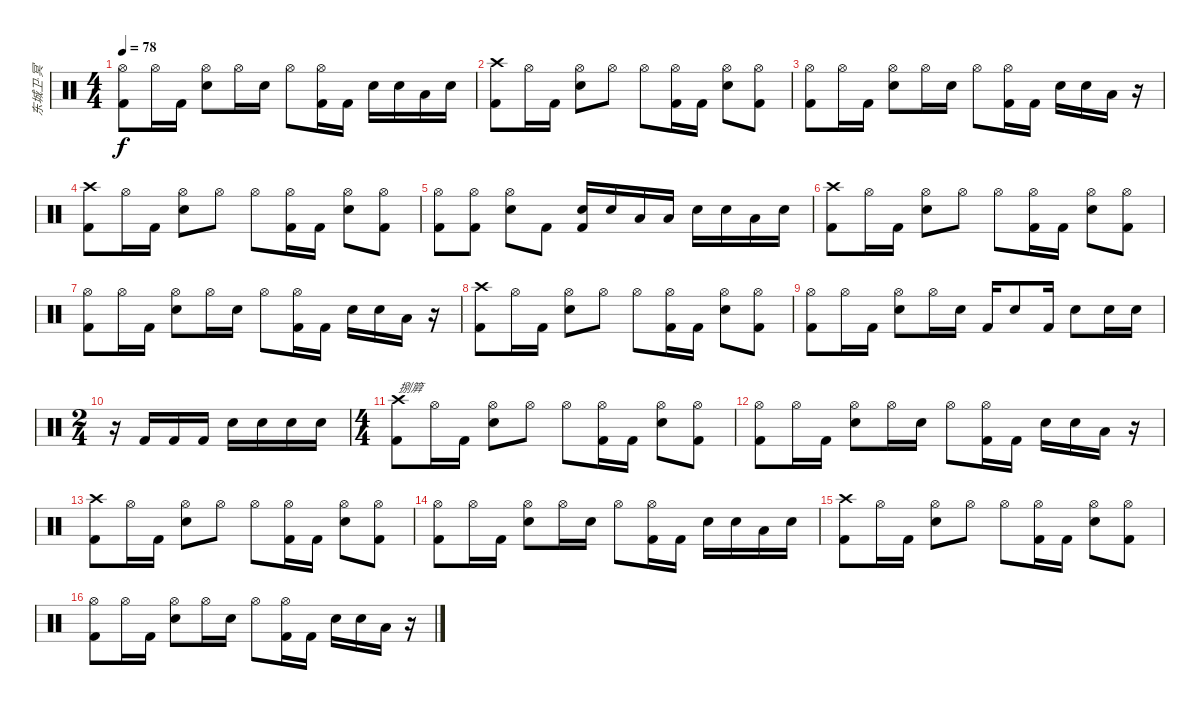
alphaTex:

\track ("东城卫·冥" "东城卫·冥") {instrument percussion}
\staff {score}
\articulation defaults
\ts (4 4)
\tempo 78
\clef neutral
\ks c
("Hi-Hat (open)" "Kick (hit) 2").8{dy f} "Hi-Hat (open)".16 "Kick (hit) 2".16 ("Hi-Hat (open)" "Electric Snare (hit)").8 "Hi-Hat (open)".16 "Electric Snare (hit)".16 "Hi-Hat (open)".8 ("Hi-Hat (open)" "Kick (hit) 2").16 "Kick (hit) 2".16 "Electric Snare (hit)".16 "Electric Snare (hit)".16 "Low Tom (hit)".16 "Electric Snare (hit)".16 |
("Crash high (hit)" "Kick (hit) 2").8 "Hi-Hat (open)".16 "Kick (hit) 2".16 ("Hi-Hat (open)" "Electric Snare (hit)").8 "Hi-Hat (open)".8 "Hi-Hat (open)".8 ("Hi-Hat (open)" "Kick (hit) 2").16 "Kick (hit) 2".16 ("Hi-Hat (open)" "Electric Snare (hit)").8 ("Hi-Hat (open)" "Kick (hit) 2").8 |
("Hi-Hat (open)" "Kick (hit) 2").8 "Hi-Hat (open)".16 "Kick (hit) 2".16 ("Hi-Hat (open)" "Electric Snare (hit)").8 "Hi-Hat (open)".16 "Electric Snare (hit)".16 "Hi-Hat (open)".8 ("Hi-Hat (open)" "Kick (hit) 2").16 "Kick (hit) 2".16 "Electric Snare (hit)".16 "Electric Snare (hit)".16 "Low Tom (hit)".16 r.16 |
("Crash high (hit)" "Kick (hit) 2").8 "Hi-Hat (open)".16 "Kick (hit) 2".16 ("Hi-Hat (open)" "Electric Snare (hit)").8 "Hi-Hat (open)".8 "Hi-Hat (open)".8 ("Hi-Hat (open)" "Kick (hit) 2").16 "Kick (hit) 2".16 ("Hi-Hat (open)" "Electric Snare (hit)").8 ("Hi-Hat (open)" "Kick (hit) 2").8 |
("Hi-Hat (open)" "Kick (hit) 2").8 ("Hi-Hat (open)" "Kick (hit) 2").8 ("Hi-Hat (open)" "Electric Snare (hit)").8 "Kick (hit) 2".8 ("Electric Snare (hit)" "Kick (hit) 2").16 "Electric Snare (hit)".16 "Low Tom (hit)".16 "Low Tom (hit)".16 "Electric Snare (hit)".16 "Electric Snare (hit)".16 "Low Tom (hit)".16 "Electric Snare (hit)".16 |
("Crash high (hit)" "Kick (hit) 2").8 "Hi-Hat (open)".16 "Kick (hit) 2".16 ("Hi-Hat (open)" "Electric Snare (hit)").8 "Hi-Hat (open)".8 "Hi-Hat (open)".8 ("Hi-Hat (open)" "Kick (hit) 2").16 "Kick (hit) 2".16 ("Hi-Hat (open)" "Electric Snare (hit)").8 ("Hi-Hat (open)" "Kick (hit) 2").8 |
("Hi-Hat (open)" "Kick (hit) 2").8 "Hi-Hat (open)".16 "Kick (hit) 2".16 ("Hi-Hat (open)" "Electric Snare (hit)").8 "Hi-Hat (open)".16 "Electric Snare (hit)".16 "Hi-Hat (open)".8 ("Hi-Hat (open)" "Kick (hit) 2").16 "Kick (hit) 2".16 "Electric Snare (hit)".16 "Electric Snare (hit)".16 "Low Tom (hit)".16 r.16 |
("Crash high (hit)" "Kick (hit) 2").8 "Hi-Hat (open)".16 "Kick (hit) 2".16 ("Hi-Hat (open)" "Electric Snare (hit)").8 "Hi-Hat (open)".8 "Hi-Hat (open)".8 ("Hi-Hat (open)" "Kick (hit) 2").16 "Kick (hit) 2".16 ("Hi-Hat (open)" "Electric Snare (hit)").8 ("Hi-Hat (open)" "Kick (hit) 2").8 |
("Hi-Hat (open)" "Kick (hit) 2").8 "Hi-Hat (open)".16 "Kick (hit) 2".16 ("Hi-Hat (open)" "Electric Snare (hit)").8 "Hi-Hat (open)".16 "Electric Snare (hit)".16 "Kick (hit) 2".16 "Electric Snare (hit)".8 "Kick (hit) 2".16 "Electric Snare (hit)".8 "Electric Snare (hit)".16 "Electric Snare (hit)".16 |
\ts (2 4)
r.16 "Kick (hit) 2".16 "Kick (hit) 2".16 "Kick (hit) 2".16 "Electric Snare (hit)".16 "Electric Snare (hit)".16 "Electric Snare (hit)".16 "Electric Snare (hit)".16 |
\ts (4 4)
("Crash high (hit)" "Kick (hit) 2").8{txt "捌簈"} "Hi-Hat (open)".16 "Kick (hit) 2".16 ("Hi-Hat (open)" "Electric Snare (hit)").8 "Hi-Hat (open)".8 "Hi-Hat (open)".8 ("Hi-Hat (open)" "Kick (hit) 2").16 "Kick (hit) 2".16 ("Hi-Hat (open)" "Electric Snare (hit)").8 ("Hi-Hat (open)" "Kick (hit) 2").8 |
("Hi-Hat (open)" "Kick (hit) 2").8 "Hi-Hat (open)".16 "Kick (hit) 2".16 ("Hi-Hat (open)" "Electric Snare (hit)").8 "Hi-Hat (open)".16 "Electric Snare (hit)".16 "Hi-Hat (open)".8 ("Hi-Hat (open)" "Kick (hit) 2").16 "Kick (hit) 2".16 "Electric Snare (hit)".16 "Electric Snare (hit)".16 "Low Tom (hit)".16 r.16 |
("Crash high (hit)" "Kick (hit) 2").8 "Hi-Hat (open)".16 "Kick (hit) 2".16 ("Hi-Hat (open)" "Electric Snare (hit)").8 "Hi-Hat (open)".8 "Hi-Hat (open)".8 ("Hi-Hat (open)" "Kick (hit) 2").16 "Kick (hit) 2".16 ("Hi-Hat (open)" "Electric Snare (hit)").8 ("Hi-Hat (open)" "Kick (hit) 2").8 |
("Hi-Hat (open)" "Kick (hit) 2").8 "Hi-Hat (open)".16 "Kick (hit) 2".16 ("Hi-Hat (open)" "Electric Snare (hit)").8 "Hi-Hat (open)".16 "Electric Snare (hit)".16 "Hi-Hat (open)".8 ("Hi-Hat (open)" "Kick (hit) 2").16 "Kick (hit) 2".16 "Electric Snare (hit)".16 "Electric Snare (hit)".16 "Low Tom (hit)".16 "Electric Snare (hit)".16 |
("Crash high (hit)" "Kick (hit) 2").8 "Hi-Hat (open)".16 "Kick (hit) 2".16 ("Hi-Hat (open)" "Electric Snare (hit)").8 "Hi-Hat (open)".8 "Hi-Hat (open)".8 ("Hi-Hat (open)" "Kick (hit) 2").16 "Kick (hit) 2".16 ("Hi-Hat (open)" "Electric Snare (hit)").8 ("Hi-Hat (open)" "Kick (hit) 2").8 |
("Hi-Hat (open)" "Kick (hit) 2").8 "Hi-Hat (open)".16 "Kick (hit) 2".16 ("Hi-Hat (open)" "Electric Snare (hit)").8 "Hi-Hat (open)".16 "Electric Snare (hit)".16 "Hi-Hat (open)".8 ("Hi-Hat (open)" "Kick (hit) 2").16 "Kick (hit) 2".16 "Electric Snare (hit)".16 "Electric Snare (hit)".16 "Low Tom (hit)".16 r.16
